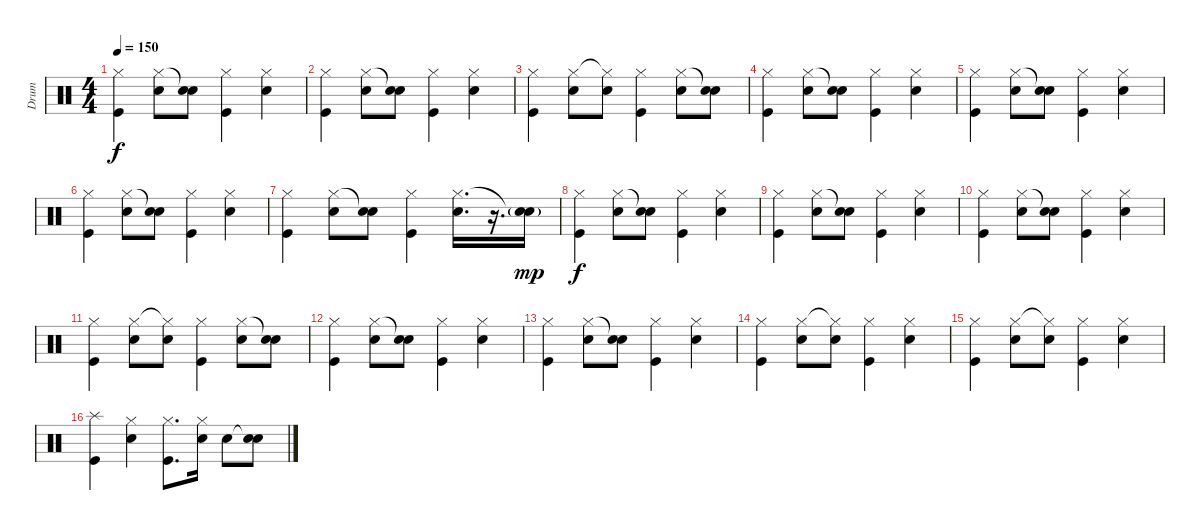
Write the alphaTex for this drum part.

\track ("Drum" "Drum") {instrument percussion}
\staff {score}
\articulation defaults
\ts (4 4)
\tempo 150
\clef neutral
\ks c
("Hi-Hat (closed)" "Kick (hit)").4{dy f} ("Hi-Hat (closed)" "Snare (hit) 2").8 ("Snare (hit)"{t} "Snare (hit) 2").8 ("Hi-Hat (closed)" "Kick (hit)").4 ("Hi-Hat (closed)" "Snare (hit) 2").4 |
("Hi-Hat (closed)" "Kick (hit)").4 ("Hi-Hat (closed)" "Snare (hit) 2").8 ("Snare (hit)"{t} "Snare (hit) 2").8 ("Hi-Hat (closed)" "Kick (hit)").4 ("Hi-Hat (closed)" "Snare (hit) 2").4 |
("Hi-Hat (closed)" "Kick (hit)").4 ("Hi-Hat (closed)" "Snare (hit) 2").8 ("Hi-Hat (closed)"{t} "Snare (hit) 2").8 ("Hi-Hat (closed)" "Kick (hit)").4 ("Hi-Hat (closed)" "Snare (hit) 2").8 ("Snare (hit)"{t} "Snare (hit) 2").8 |
("Hi-Hat (closed)" "Kick (hit)").4 ("Hi-Hat (closed)" "Snare (hit) 2").8 ("Snare (hit)"{t} "Snare (hit) 2").8 ("Hi-Hat (closed)" "Kick (hit)").4 ("Hi-Hat (closed)" "Snare (hit) 2").4 |
("Hi-Hat (closed)" "Kick (hit)").4 ("Hi-Hat (closed)" "Snare (hit) 2").8 ("Snare (hit)"{t} "Snare (hit) 2").8 ("Hi-Hat (closed)" "Kick (hit)").4 ("Hi-Hat (closed)" "Snare (hit) 2").4 |
("Hi-Hat (closed)" "Kick (hit)").4 ("Hi-Hat (closed)" "Snare (hit) 2").8 ("Snare (hit)"{t} "Snare (hit) 2").8 ("Hi-Hat (closed)" "Kick (hit)").4 ("Hi-Hat (closed)" "Snare (hit) 2").4 |
("Hi-Hat (closed)" "Kick (hit)").4 ("Hi-Hat (closed)" "Snare (hit) 2").8 ("Snare (hit)"{t} "Snare (hit) 2").8 ("Hi-Hat (closed)" "Kick (hit)").4 ("Hi-Hat (closed)" "Snare (hit) 2").16{d} r.16{d} ("Snare (hit)"{t} "Snare (hit) 2"{g}).16{dy mp} |
("Hi-Hat (closed)" "Kick (hit)").4{dy f} ("Hi-Hat (closed)" "Snare (hit) 2").8 ("Snare (hit)"{t} "Snare (hit) 2").8 ("Hi-Hat (closed)" "Kick (hit)").4 ("Hi-Hat (closed)" "Snare (hit) 2").4 |
("Hi-Hat (closed)" "Kick (hit)").4 ("Hi-Hat (closed)" "Snare (hit) 2").8 ("Snare (hit)"{t} "Snare (hit) 2").8 ("Hi-Hat (closed)" "Kick (hit)").4 ("Hi-Hat (closed)" "Snare (hit) 2").4 |
("Hi-Hat (closed)" "Kick (hit)").4 ("Hi-Hat (closed)" "Snare (hit) 2").8 ("Snare (hit)"{t} "Snare (hit) 2").8 ("Hi-Hat (closed)" "Kick (hit)").4 ("Hi-Hat (closed)" "Snare (hit) 2").4 |
("Hi-Hat (closed)" "Kick (hit)").4 ("Hi-Hat (closed)" "Snare (hit) 2").8 ("Hi-Hat (closed)"{t} "Snare (hit) 2").8 ("Hi-Hat (closed)" "Kick (hit)").4 ("Hi-Hat (closed)" "Snare (hit) 2").8 ("Snare (hit)"{t} "Snare (hit) 2").8 |
("Hi-Hat (closed)" "Kick (hit)").4 ("Hi-Hat (closed)" "Snare (hit) 2").8 ("Snare (hit)"{t} "Snare (hit) 2").8 ("Hi-Hat (closed)" "Kick (hit)").4 ("Hi-Hat (closed)" "Snare (hit) 2").4 |
("Hi-Hat (closed)" "Kick (hit)").4 ("Hi-Hat (closed)" "Snare (hit) 2").8 ("Snare (hit)"{t} "Snare (hit) 2").8 ("Hi-Hat (closed)" "Kick (hit)").4 ("Hi-Hat (closed)" "Snare (hit) 2").4 |
("Hi-Hat (closed)" "Kick (hit)").4 ("Hi-Hat (closed)" "Snare (hit) 2").8 ("Hi-Hat (closed)"{t} "Snare (hit) 2").8 ("Hi-Hat (closed)" "Kick (hit)").4 ("Hi-Hat (closed)" "Snare (hit) 2").4 |
("Hi-Hat (closed)" "Kick (hit)").4 ("Hi-Hat (closed)" "Snare (hit) 2").8 ("Hi-Hat (closed)"{t} "Snare (hit) 2").8 ("Hi-Hat (closed)" "Kick (hit)").4 ("Hi-Hat (closed)" "Snare (hit) 2").4 |
("Splash (hit)" "Kick (hit)").4 ("Hi-Hat (closed)" "Snare (hit) 2").4 ("Hi-Hat (closed)" "Kick (hit)").8{d} ("Hi-Hat (closed)" "Snare (hit) 2").16 "Snare (hit) 2".8 ("Snare (hit)"{t} "Snare (hit) 2").8
